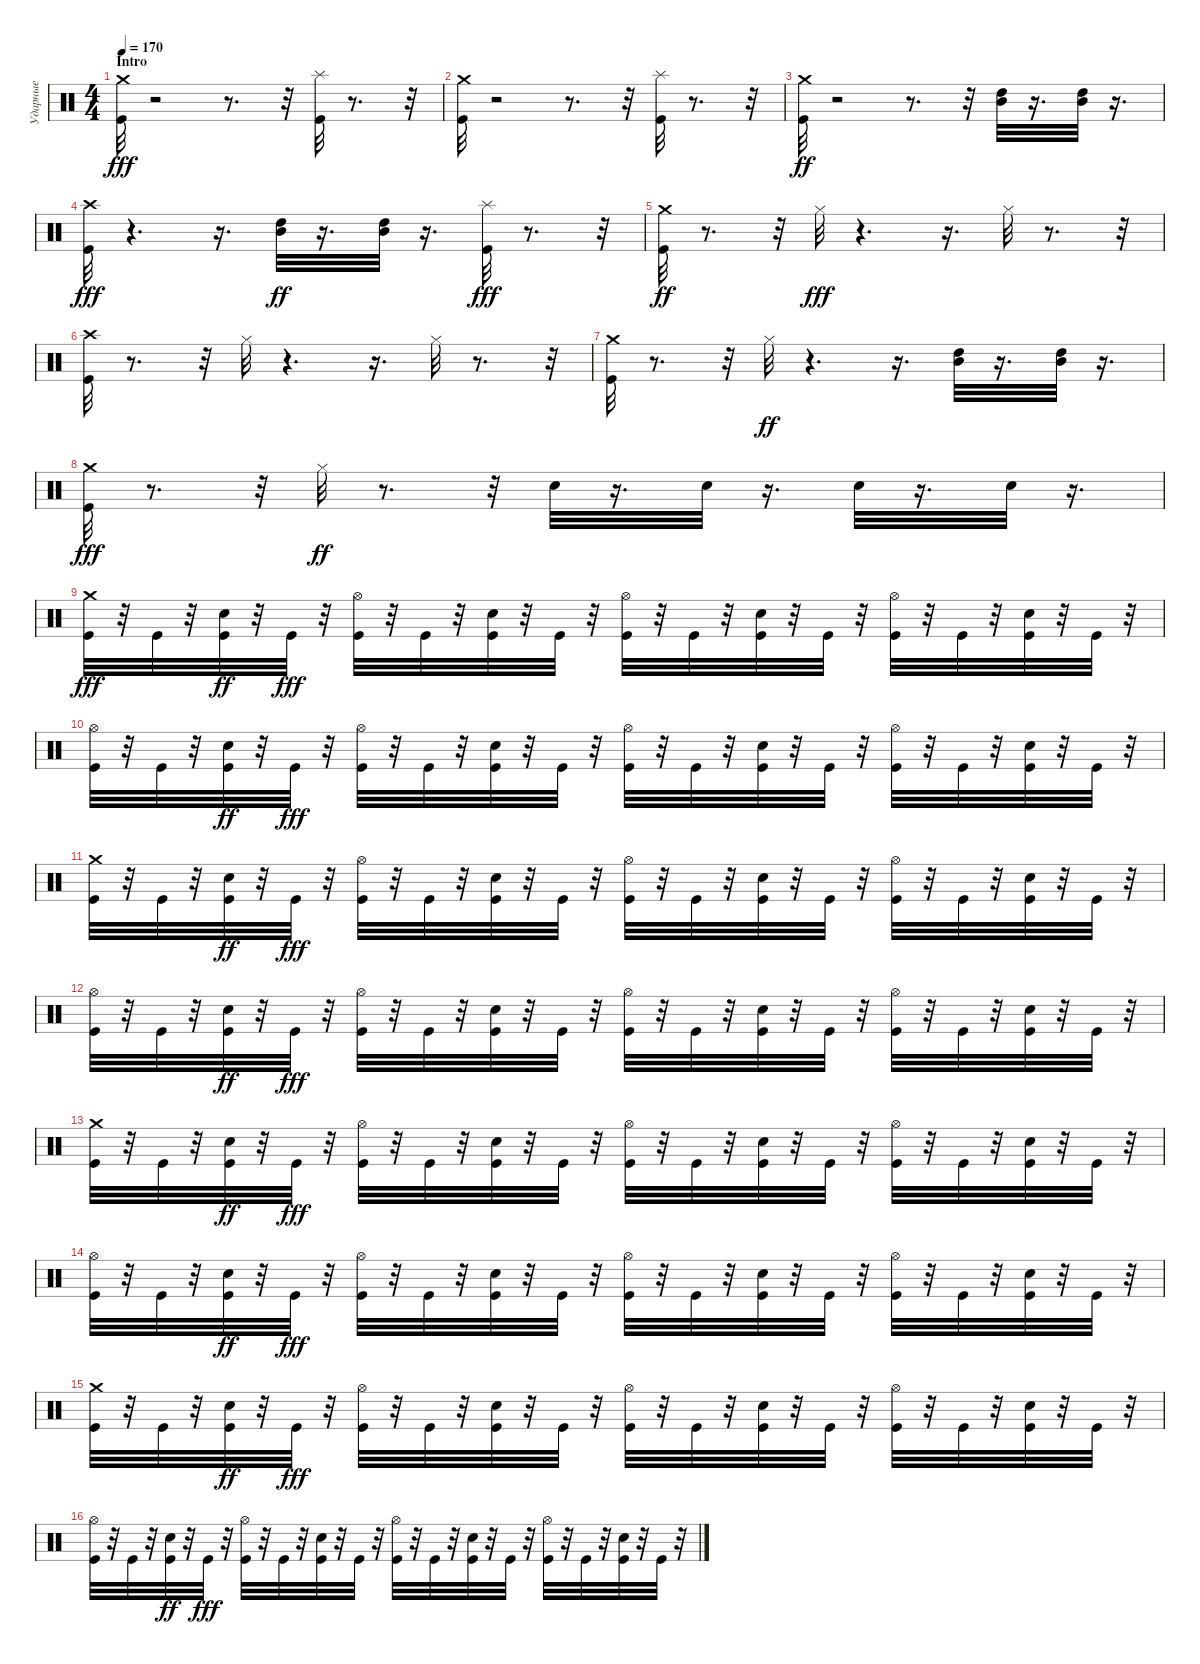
\track ("Ударные" "Ударные") {instrument percussion}
\staff {score}
\articulation defaults
\ts (4 4)
\section ("" "Intro")
\tempo 170
\clef neutral
\ks c
("Crash medium (hit)" "Kick (hit)").32{dy fff} r.2 r.8{d} r.32 ("Splash (hit)" "Kick (hit)").32 r.8{d} r.32 |
("Crash medium (hit)" "Kick (hit)").32 r.2 r.8{d} r.32 ("Splash (hit)" "Kick (hit)").32 r.8{d} r.32 |
("Kick (hit)" "Crash medium (hit)").32{dy ff} r.2 r.8{d} r.32 ("Mid Tom (hit)" "High Tom (hit)").32 r.16{d} ("High Tom (hit)" "Mid Tom (hit)").32 r.16{d} |
("Crash high (hit)" "Kick (hit)").32{dy fff} r.4{d} r.16{d} ("High Tom (hit)" "Mid Tom (hit)").32{dy ff} r.16{d} ("High Tom (hit)" "Mid Tom (hit)").32 r.16{d} ("Splash (hit)" "Kick (hit)").32{dy fff} r.8{d} r.32 |
("Kick (hit)" "Crash medium (hit)").32{dy ff} r.8{d} r.32 "Hi-Hat (closed)".32{dy fff} r.4{d} r.16{d} "Hi-Hat (closed)".32 r.8{d} r.32 |
("Crash high (hit)" "Kick (hit)").32 r.8{d} r.32 "Hi-Hat (closed)".32 r.4{d} r.16{d} "Hi-Hat (closed)".32 r.8{d} r.32 |
("Crash medium (hit)" "Kick (hit)").32 r.8{d} r.32 "Hi-Hat (closed)".32{dy ff} r.4{d} r.16{d} ("High Tom (hit)" "Mid Tom (hit)").32 r.16{d} ("High Tom (hit)" "Mid Tom (hit)").32 r.16{d} |
("Crash medium (hit)" "Kick (hit)").32{dy fff} r.8{d} r.32 "Hi-Hat (closed)".32{dy ff} r.8{d} r.32 "Snare (hit) 2".32 r.16{d} "Snare (hit) 2".32 r.16{d} "Snare (hit) 2".32 r.16{d} "Snare (hit) 2".32 r.16{d} |
("Crash medium (hit)" "Kick (hit)").32{dy fff} r.32 "Kick (hit)".32 r.32 ("Kick (hit)" "Snare (hit) 2").32{dy ff} r.32 "Kick (hit)".32{dy fff} r.32 ("Hi-Hat (open)" "Kick (hit)").32 r.32 "Kick (hit)".32 r.32 ("Snare (hit) 2" "Kick (hit)").32 r.32 "Kick (hit)".32 r.32 ("Hi-Hat (open)" "Kick (hit)").32 r.32 "Kick (hit)".32 r.32 ("Snare (hit) 2" "Kick (hit)").32 r.32 "Kick (hit)".32 r.32 ("Hi-Hat (open)" "Kick (hit)").32 r.32 "Kick (hit)".32 r.32 ("Snare (hit) 2" "Kick (hit)").32 r.32 "Kick (hit)".32 r.32 |
("Hi-Hat (open)" "Kick (hit)").32 r.32 "Kick (hit)".32 r.32 ("Kick (hit)" "Snare (hit) 2").32{dy ff} r.32 "Kick (hit)".32{dy fff} r.32 ("Hi-Hat (open)" "Kick (hit)").32 r.32 "Kick (hit)".32 r.32 ("Snare (hit) 2" "Kick (hit)").32 r.32 "Kick (hit)".32 r.32 ("Hi-Hat (open)" "Kick (hit)").32 r.32 "Kick (hit)".32 r.32 ("Snare (hit) 2" "Kick (hit)").32 r.32 "Kick (hit)".32 r.32 ("Hi-Hat (open)" "Kick (hit)").32 r.32 "Kick (hit)".32 r.32 ("Snare (hit) 2" "Kick (hit)").32 r.32 "Kick (hit)".32 r.32 |
("Crash medium (hit)" "Kick (hit)").32 r.32 "Kick (hit)".32 r.32 ("Kick (hit)" "Snare (hit) 2").32{dy ff} r.32 "Kick (hit)".32{dy fff} r.32 ("Hi-Hat (open)" "Kick (hit)").32 r.32 "Kick (hit)".32 r.32 ("Snare (hit) 2" "Kick (hit)").32 r.32 "Kick (hit)".32 r.32 ("Hi-Hat (open)" "Kick (hit)").32 r.32 "Kick (hit)".32 r.32 ("Snare (hit) 2" "Kick (hit)").32 r.32 "Kick (hit)".32 r.32 ("Hi-Hat (open)" "Kick (hit)").32 r.32 "Kick (hit)".32 r.32 ("Snare (hit) 2" "Kick (hit)").32 r.32 "Kick (hit)".32 r.32 |
("Hi-Hat (open)" "Kick (hit)").32 r.32 "Kick (hit)".32 r.32 ("Kick (hit)" "Snare (hit) 2").32{dy ff} r.32 "Kick (hit)".32{dy fff} r.32 ("Hi-Hat (open)" "Kick (hit)").32 r.32 "Kick (hit)".32 r.32 ("Snare (hit) 2" "Kick (hit)").32 r.32 "Kick (hit)".32 r.32 ("Hi-Hat (open)" "Kick (hit)").32 r.32 "Kick (hit)".32 r.32 ("Snare (hit) 2" "Kick (hit)").32 r.32 "Kick (hit)".32 r.32 ("Hi-Hat (open)" "Kick (hit)").32 r.32 "Kick (hit)".32 r.32 ("Snare (hit) 2" "Kick (hit)").32 r.32 "Kick (hit)".32 r.32 |
("Crash medium (hit)" "Kick (hit)").32 r.32 "Kick (hit)".32 r.32 ("Kick (hit)" "Snare (hit) 2").32{dy ff} r.32 "Kick (hit)".32{dy fff} r.32 ("Hi-Hat (open)" "Kick (hit)").32 r.32 "Kick (hit)".32 r.32 ("Snare (hit) 2" "Kick (hit)").32 r.32 "Kick (hit)".32 r.32 ("Hi-Hat (open)" "Kick (hit)").32 r.32 "Kick (hit)".32 r.32 ("Snare (hit) 2" "Kick (hit)").32 r.32 "Kick (hit)".32 r.32 ("Hi-Hat (open)" "Kick (hit)").32 r.32 "Kick (hit)".32 r.32 ("Snare (hit) 2" "Kick (hit)").32 r.32 "Kick (hit)".32 r.32 |
("Hi-Hat (open)" "Kick (hit)").32 r.32 "Kick (hit)".32 r.32 ("Kick (hit)" "Snare (hit) 2").32{dy ff} r.32 "Kick (hit)".32{dy fff} r.32 ("Hi-Hat (open)" "Kick (hit)").32 r.32 "Kick (hit)".32 r.32 ("Snare (hit) 2" "Kick (hit)").32 r.32 "Kick (hit)".32 r.32 ("Hi-Hat (open)" "Kick (hit)").32 r.32 "Kick (hit)".32 r.32 ("Snare (hit) 2" "Kick (hit)").32 r.32 "Kick (hit)".32 r.32 ("Hi-Hat (open)" "Kick (hit)").32 r.32 "Kick (hit)".32 r.32 ("Snare (hit) 2" "Kick (hit)").32 r.32 "Kick (hit)".32 r.32 |
("Crash medium (hit)" "Kick (hit)").32 r.32 "Kick (hit)".32 r.32 ("Kick (hit)" "Snare (hit) 2").32{dy ff} r.32 "Kick (hit)".32{dy fff} r.32 ("Hi-Hat (open)" "Kick (hit)").32 r.32 "Kick (hit)".32 r.32 ("Snare (hit) 2" "Kick (hit)").32 r.32 "Kick (hit)".32 r.32 ("Hi-Hat (open)" "Kick (hit)").32 r.32 "Kick (hit)".32 r.32 ("Snare (hit) 2" "Kick (hit)").32 r.32 "Kick (hit)".32 r.32 ("Hi-Hat (open)" "Kick (hit)").32 r.32 "Kick (hit)".32 r.32 ("Snare (hit) 2" "Kick (hit)").32 r.32 "Kick (hit)".32 r.32 |
("Hi-Hat (open)" "Kick (hit)").32 r.32 "Kick (hit)".32 r.32 ("Kick (hit)" "Snare (hit) 2").32{dy ff} r.32 "Kick (hit)".32{dy fff} r.32 ("Hi-Hat (open)" "Kick (hit)").32 r.32 "Kick (hit)".32 r.32 ("Snare (hit) 2" "Kick (hit)").32 r.32 "Kick (hit)".32 r.32 ("Hi-Hat (open)" "Kick (hit)").32 r.32 "Kick (hit)".32 r.32 ("Snare (hit) 2" "Kick (hit)").32 r.32 "Kick (hit)".32 r.32 ("Hi-Hat (open)" "Kick (hit)").32 r.32 "Kick (hit)".32 r.32 ("Snare (hit) 2" "Kick (hit)").32 r.32 "Kick (hit)".32 r.32
